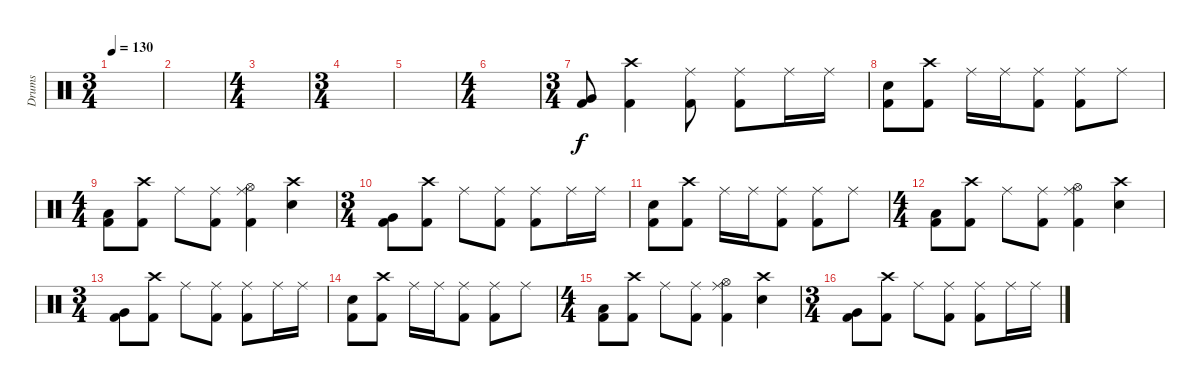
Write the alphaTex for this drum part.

\track ("Drums" "Drums") {instrument percussion}
\staff {score}
\articulation defaults
\ts (3 4)
\tempo 130
\clef neutral
\ks c
|
|
\ts (4 4)
|
\ts (3 4)
|
|
\ts (4 4)
|
\ts (3 4)
("Very Low Tom (hit)" "Kick (hit) 2").8 ("Crash high (hit)" "Kick (hit) 2").4 ("Ride (middle)" "Kick (hit) 2").8 ("Ride (middle)" "Kick (hit) 2").8 "Ride (middle)".16 "Ride (middle)".16 |
("Snare (hit) 2" "Kick (hit) 2").8 ("Crash high (hit)" "Kick (hit) 2").8 "Ride (middle)".16 "Ride (middle)".16 ("Ride (middle)" "Kick (hit) 2").8 ("Ride (middle)" "Kick (hit) 2").8 "Ride (middle)".8 |
\ts (4 4)
("Low Floor Tom (hit)" "Kick (hit) 2").8 ("Crash high (hit)" "Kick (hit) 2").8 "Ride (middle)".8 ("Ride (middle)" "Kick (hit) 2").8 ("Ride (middle)" "Hi-Hat (open)" "Kick (hit) 2").4 ("Crash high (hit)" "Snare (hit) 2").4 |
\ts (3 4)
("Very Low Tom (hit)" "Kick (hit) 2").8 ("Crash high (hit)" "Kick (hit) 2").8 "Ride (middle)".8 ("Ride (middle)" "Kick (hit) 2").8 ("Ride (middle)" "Kick (hit) 2").8 "Ride (middle)".16 "Ride (middle)".16 |
("Snare (hit) 2" "Kick (hit) 2").8 ("Crash high (hit)" "Kick (hit) 2").8 "Ride (middle)".16 "Ride (middle)".16 ("Ride (middle)" "Kick (hit) 2").8 ("Ride (middle)" "Kick (hit) 2").8 "Ride (middle)".8 |
\ts (4 4)
("Low Floor Tom (hit)" "Kick (hit) 2").8 ("Crash high (hit)" "Kick (hit) 2").8 "Ride (middle)".8 ("Ride (middle)" "Kick (hit) 2").8 ("Ride (middle)" "Hi-Hat (open)" "Kick (hit) 2").4 ("Crash high (hit)" "Snare (hit) 2").4 |
\ts (3 4)
("Very Low Tom (hit)" "Kick (hit) 2").8 ("Crash high (hit)" "Kick (hit) 2").8 "Ride (middle)".8 ("Ride (middle)" "Kick (hit) 2").8 ("Ride (middle)" "Kick (hit) 2").8 "Ride (middle)".16 "Ride (middle)".16 |
("Snare (hit) 2" "Kick (hit) 2").8 ("Crash high (hit)" "Kick (hit) 2").8 "Ride (middle)".16 "Ride (middle)".16 ("Ride (middle)" "Kick (hit) 2").8 ("Ride (middle)" "Kick (hit) 2").8 "Ride (middle)".8 |
\ts (4 4)
("Low Floor Tom (hit)" "Kick (hit) 2").8 ("Crash high (hit)" "Kick (hit) 2").8 "Ride (middle)".8 ("Ride (middle)" "Kick (hit) 2").8 ("Ride (middle)" "Hi-Hat (open)" "Kick (hit) 2").4 ("Crash high (hit)" "Snare (hit) 2").4 |
\ts (3 4)
("Very Low Tom (hit)" "Kick (hit) 2").8 ("Crash high (hit)" "Kick (hit) 2").8 "Ride (middle)".8 ("Ride (middle)" "Kick (hit) 2").8 ("Ride (middle)" "Kick (hit) 2").8 "Ride (middle)".16 "Ride (middle)".16
